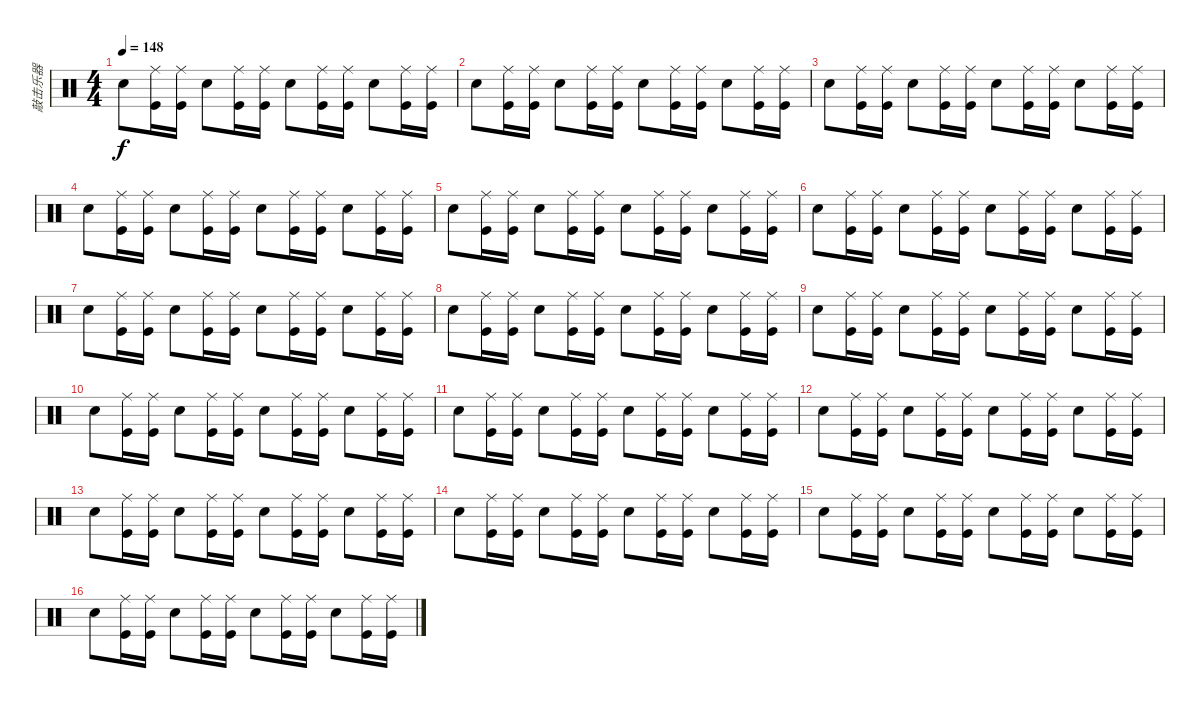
\track ("敲击乐器" "敲击乐器") {instrument percussion}
\staff {score}
\articulation defaults
\ts (4 4)
\tempo 148
\clef neutral
\ks c "Snare (hit) 2".8{dy f}
("Kick (hit)" "Ride (middle)").16 ("Kick (hit)" "Ride (middle)").16 "Snare (hit) 2".8 ("Kick (hit)" "Ride (middle)").16 ("Kick (hit)" "Ride (middle)").16 "Snare (hit) 2".8 ("Kick (hit)" "Ride (middle)").16 ("Kick (hit)" "Ride (middle)").16 "Snare (hit) 2".8 ("Kick (hit)" "Ride (middle)").16 ("Kick (hit)" "Ride (middle)").16 |
"Snare (hit) 2".8 ("Kick (hit)" "Ride (middle)").16 ("Kick (hit)" "Ride (middle)").16 "Snare (hit) 2".8 ("Kick (hit)" "Ride (middle)").16 ("Kick (hit)" "Ride (middle)").16 "Snare (hit) 2".8 ("Kick (hit)" "Ride (middle)").16 ("Kick (hit)" "Ride (middle)").16 "Snare (hit) 2".8 ("Kick (hit)" "Ride (middle)").16 ("Kick (hit)" "Ride (middle)").16 |
"Snare (hit) 2".8 ("Kick (hit)" "Ride (middle)").16 ("Kick (hit)" "Ride (middle)").16 "Snare (hit) 2".8 ("Kick (hit)" "Ride (middle)").16 ("Kick (hit)" "Ride (middle)").16 "Snare (hit) 2".8 ("Kick (hit)" "Ride (middle)").16 ("Kick (hit)" "Ride (middle)").16 "Snare (hit) 2".8 ("Kick (hit)" "Ride (middle)").16 ("Kick (hit)" "Ride (middle)").16 |
"Snare (hit) 2".8 ("Kick (hit)" "Ride (middle)").16 ("Kick (hit)" "Ride (middle)").16 "Snare (hit) 2".8 ("Kick (hit)" "Ride (middle)").16 ("Kick (hit)" "Ride (middle)").16 "Snare (hit) 2".8 ("Kick (hit)" "Ride (middle)").16 ("Kick (hit)" "Ride (middle)").16 "Snare (hit) 2".8 ("Kick (hit)" "Ride (middle)").16 ("Kick (hit)" "Ride (middle)").16 |
"Snare (hit) 2".8 ("Kick (hit)" "Ride (middle)").16 ("Kick (hit)" "Ride (middle)").16 "Snare (hit) 2".8 ("Kick (hit)" "Ride (middle)").16 ("Kick (hit)" "Ride (middle)").16 "Snare (hit) 2".8 ("Kick (hit)" "Ride (middle)").16 ("Kick (hit)" "Ride (middle)").16 "Snare (hit) 2".8 ("Kick (hit)" "Ride (middle)").16 ("Kick (hit)" "Ride (middle)").16 |
"Snare (hit) 2".8 ("Kick (hit)" "Ride (middle)").16 ("Kick (hit)" "Ride (middle)").16 "Snare (hit) 2".8 ("Kick (hit)" "Ride (middle)").16 ("Kick (hit)" "Ride (middle)").16 "Snare (hit) 2".8 ("Kick (hit)" "Ride (middle)").16 ("Kick (hit)" "Ride (middle)").16 "Snare (hit) 2".8 ("Kick (hit)" "Ride (middle)").16 ("Kick (hit)" "Ride (middle)").16 |
"Snare (hit) 2".8 ("Kick (hit)" "Ride (middle)").16 ("Kick (hit)" "Ride (middle)").16 "Snare (hit) 2".8 ("Kick (hit)" "Ride (middle)").16 ("Kick (hit)" "Ride (middle)").16 "Snare (hit) 2".8 ("Kick (hit)" "Ride (middle)").16 ("Kick (hit)" "Ride (middle)").16 "Snare (hit) 2".8 ("Kick (hit)" "Ride (middle)").16 ("Kick (hit)" "Ride (middle)").16 |
"Snare (hit) 2".8 ("Kick (hit)" "Ride (middle)").16 ("Kick (hit)" "Ride (middle)").16 "Snare (hit) 2".8 ("Kick (hit)" "Ride (middle)").16 ("Kick (hit)" "Ride (middle)").16 "Snare (hit) 2".8 ("Kick (hit)" "Ride (middle)").16 ("Kick (hit)" "Ride (middle)").16 "Snare (hit) 2".8 ("Kick (hit)" "Ride (middle)").16 ("Kick (hit)" "Ride (middle)").16 |
"Snare (hit) 2".8 ("Kick (hit)" "Ride (middle)").16 ("Kick (hit)" "Ride (middle)").16 "Snare (hit) 2".8 ("Kick (hit)" "Ride (middle)").16 ("Kick (hit)" "Ride (middle)").16 "Snare (hit) 2".8 ("Kick (hit)" "Ride (middle)").16 ("Kick (hit)" "Ride (middle)").16 "Snare (hit) 2".8 ("Kick (hit)" "Ride (middle)").16 ("Kick (hit)" "Ride (middle)").16 |
"Snare (hit) 2".8 ("Kick (hit)" "Ride (middle)").16 ("Kick (hit)" "Ride (middle)").16 "Snare (hit) 2".8 ("Kick (hit)" "Ride (middle)").16 ("Kick (hit)" "Ride (middle)").16 "Snare (hit) 2".8 ("Kick (hit)" "Ride (middle)").16 ("Kick (hit)" "Ride (middle)").16 "Snare (hit) 2".8 ("Kick (hit)" "Ride (middle)").16 ("Kick (hit)" "Ride (middle)").16 |
"Snare (hit) 2".8 ("Kick (hit)" "Ride (middle)").16 ("Kick (hit)" "Ride (middle)").16 "Snare (hit) 2".8 ("Kick (hit)" "Ride (middle)").16 ("Kick (hit)" "Ride (middle)").16 "Snare (hit) 2".8 ("Kick (hit)" "Ride (middle)").16 ("Kick (hit)" "Ride (middle)").16 "Snare (hit) 2".8 ("Kick (hit)" "Ride (middle)").16 ("Kick (hit)" "Ride (middle)").16 |
"Snare (hit) 2".8 ("Kick (hit)" "Ride (middle)").16 ("Kick (hit)" "Ride (middle)").16 "Snare (hit) 2".8 ("Kick (hit)" "Ride (middle)").16 ("Kick (hit)" "Ride (middle)").16 "Snare (hit) 2".8 ("Kick (hit)" "Ride (middle)").16 ("Kick (hit)" "Ride (middle)").16 "Snare (hit) 2".8 ("Kick (hit)" "Ride (middle)").16 ("Kick (hit)" "Ride (middle)").16 |
"Snare (hit) 2".8 ("Kick (hit)" "Ride (middle)").16 ("Kick (hit)" "Ride (middle)").16 "Snare (hit) 2".8 ("Kick (hit)" "Ride (middle)").16 ("Kick (hit)" "Ride (middle)").16 "Snare (hit) 2".8 ("Kick (hit)" "Ride (middle)").16 ("Kick (hit)" "Ride (middle)").16 "Snare (hit) 2".8 ("Kick (hit)" "Ride (middle)").16 ("Kick (hit)" "Ride (middle)").16 |
"Snare (hit) 2".8 ("Kick (hit)" "Ride (middle)").16 ("Kick (hit)" "Ride (middle)").16 "Snare (hit) 2".8 ("Kick (hit)" "Ride (middle)").16 ("Kick (hit)" "Ride (middle)").16 "Snare (hit) 2".8 ("Kick (hit)" "Ride (middle)").16 ("Kick (hit)" "Ride (middle)").16 "Snare (hit) 2".8 ("Kick (hit)" "Ride (middle)").16 ("Kick (hit)" "Ride (middle)").16 |
"Snare (hit) 2".8 ("Kick (hit)" "Ride (middle)").16 ("Kick (hit)" "Ride (middle)").16 "Snare (hit) 2".8 ("Kick (hit)" "Ride (middle)").16 ("Kick (hit)" "Ride (middle)").16 "Snare (hit) 2".8 ("Kick (hit)" "Ride (middle)").16 ("Kick (hit)" "Ride (middle)").16 "Snare (hit) 2".8 ("Kick (hit)" "Ride (middle)").16 ("Kick (hit)" "Ride (middle)").16 |
"Snare (hit) 2".8 ("Kick (hit)" "Ride (middle)").16 ("Kick (hit)" "Ride (middle)").16 "Snare (hit) 2".8 ("Kick (hit)" "Ride (middle)").16 ("Kick (hit)" "Ride (middle)").16 "Snare (hit) 2".8 ("Kick (hit)" "Ride (middle)").16 ("Kick (hit)" "Ride (middle)").16 "Snare (hit) 2".8 ("Kick (hit)" "Ride (middle)").16 ("Kick (hit)" "Ride (middle)").16
